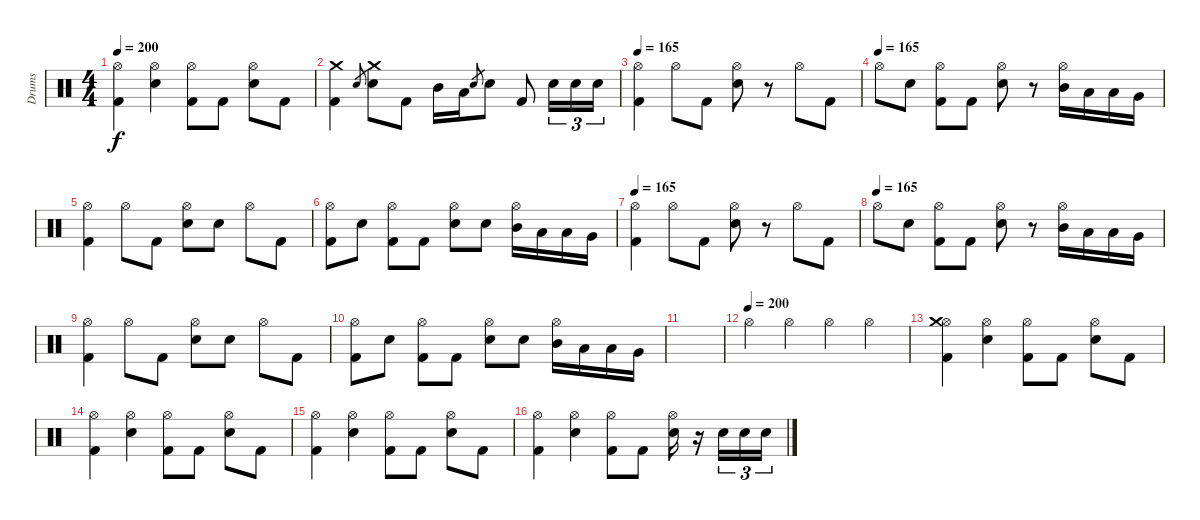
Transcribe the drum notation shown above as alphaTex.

\track ("Drums" "Drums") {instrument percussion}
\staff {score}
\articulation defaults
\ts (4 4)
\tempo 200
\clef neutral
\ks c
("Hi-Hat (open)" "Kick (hit) 2").4{dy f} ("Hi-Hat (open)" "Snare (hit) 2").4 ("Hi-Hat (open)" "Kick (hit) 2").8 "Kick (hit) 2".8 ("Hi-Hat (open)" "Snare (hit) 2").8 "Kick (hit) 2".8 |
("Crash medium (hit)" "Kick (hit) 2").4 "Snare (hit) 2".8{gr} ("Crash medium (hit)" "Snare (hit) 2").8 "Kick (hit) 2".8 "Mid Tom (hit)".16 "Low Tom (hit)".16 "Snare (hit) 2".8{gr} "Snare (hit) 2".8 "Kick (hit) 2".8 "Snare (hit) 2".16{tu (3 2)} "Snare (hit) 2".16{tu (3 2)} "Snare (hit) 2".16{tu (3 2)} |
\tempo 170
\tempo 165
("Hi-Hat (open)" "Kick (hit) 2").4 "Hi-Hat (open)".8 "Kick (hit) 2".8 ("Hi-Hat (open)" "Snare (hit) 2").8 r.8 "Hi-Hat (open)".8 "Kick (hit) 2".8 |
\tempo (165)
"Hi-Hat (open)".8 "Snare (hit) 2".8 ("Hi-Hat (open)" "Kick (hit) 2").8 "Kick (hit) 2".8 ("Hi-Hat (open)" "Snare (hit) 2").8 r.8 ("Hi-Hat (open)" "Mid Tom (hit)").16 "Low Tom (hit)".16 "Low Tom (hit)".16 "Very Low Tom (hit)".16 |
("Hi-Hat (open)" "Kick (hit) 2").4 "Hi-Hat (open)".8 "Kick (hit) 2".8 ("Hi-Hat (open)" "Snare (hit) 2").8 "Snare (hit) 2".8 "Hi-Hat (open)".8 "Kick (hit) 2".8 |
("Hi-Hat (open)" "Kick (hit) 2").8 "Snare (hit) 2".8 ("Hi-Hat (open)" "Kick (hit) 2").8 "Kick (hit) 2".8 ("Hi-Hat (open)" "Snare (hit) 2").8 "Snare (hit) 2".8 ("Hi-Hat (open)" "Mid Tom (hit)").16 "Low Tom (hit)".16 "Low Tom (hit)".16 "Very Low Tom (hit)".16 |
\tempo 165
("Hi-Hat (open)" "Kick (hit) 2").4 "Hi-Hat (open)".8 "Kick (hit) 2".8 ("Hi-Hat (open)" "Snare (hit) 2").8 r.8 "Hi-Hat (open)".8 "Kick (hit) 2".8 |
\tempo (165)
"Hi-Hat (open)".8 "Snare (hit) 2".8 ("Hi-Hat (open)" "Kick (hit) 2").8 "Kick (hit) 2".8 ("Hi-Hat (open)" "Snare (hit) 2").8 r.8 ("Hi-Hat (open)" "Mid Tom (hit)").16 "Low Tom (hit)".16 "Low Tom (hit)".16 "Very Low Tom (hit)".16 |
("Hi-Hat (open)" "Kick (hit) 2").4 "Hi-Hat (open)".8 "Kick (hit) 2".8 ("Hi-Hat (open)" "Snare (hit) 2").8 "Snare (hit) 2".8 "Hi-Hat (open)".8 "Kick (hit) 2".8 |
("Hi-Hat (open)" "Kick (hit) 2").8 "Snare (hit) 2".8 ("Hi-Hat (open)" "Kick (hit) 2").8 "Kick (hit) 2".8 ("Hi-Hat (open)" "Snare (hit) 2").8 "Snare (hit) 2".8 ("Hi-Hat (open)" "Mid Tom (hit)").16 "Low Tom (hit)".16 "Low Tom (hit)".16 "Very Low Tom (hit)".16 |
|
\tempo (200)
"Hi-Hat (open)".4 "Hi-Hat (open)".4 "Hi-Hat (open)".4 "Hi-Hat (open)".4 |
("Hi-Hat (open)" "Crash medium (hit)" "Kick (hit) 2").4 ("Hi-Hat (open)" "Snare (hit) 2").4 ("Hi-Hat (open)" "Kick (hit) 2").8 "Kick (hit) 2".8 ("Hi-Hat (open)" "Snare (hit) 2").8 "Kick (hit) 2".8 |
("Hi-Hat (open)" "Kick (hit) 2").4 ("Hi-Hat (open)" "Snare (hit) 2").4 ("Hi-Hat (open)" "Kick (hit) 2").8 "Kick (hit) 2".8 ("Hi-Hat (open)" "Snare (hit) 2").8 "Kick (hit) 2".8 |
("Hi-Hat (open)" "Kick (hit) 2").4 ("Hi-Hat (open)" "Snare (hit) 2").4 ("Hi-Hat (open)" "Kick (hit) 2").8 "Kick (hit) 2".8 ("Hi-Hat (open)" "Snare (hit) 2").8 "Kick (hit) 2".8 |
("Hi-Hat (open)" "Kick (hit) 2").4 ("Hi-Hat (open)" "Snare (hit) 2").4 ("Hi-Hat (open)" "Kick (hit) 2").8 "Kick (hit) 2".8 ("Hi-Hat (open)" "Snare (hit) 2").16 r.16 "Snare (hit) 2".16{tu (3 2)} "Snare (hit) 2".16{tu (3 2)} "Snare (hit) 2".16{tu (3 2)}
